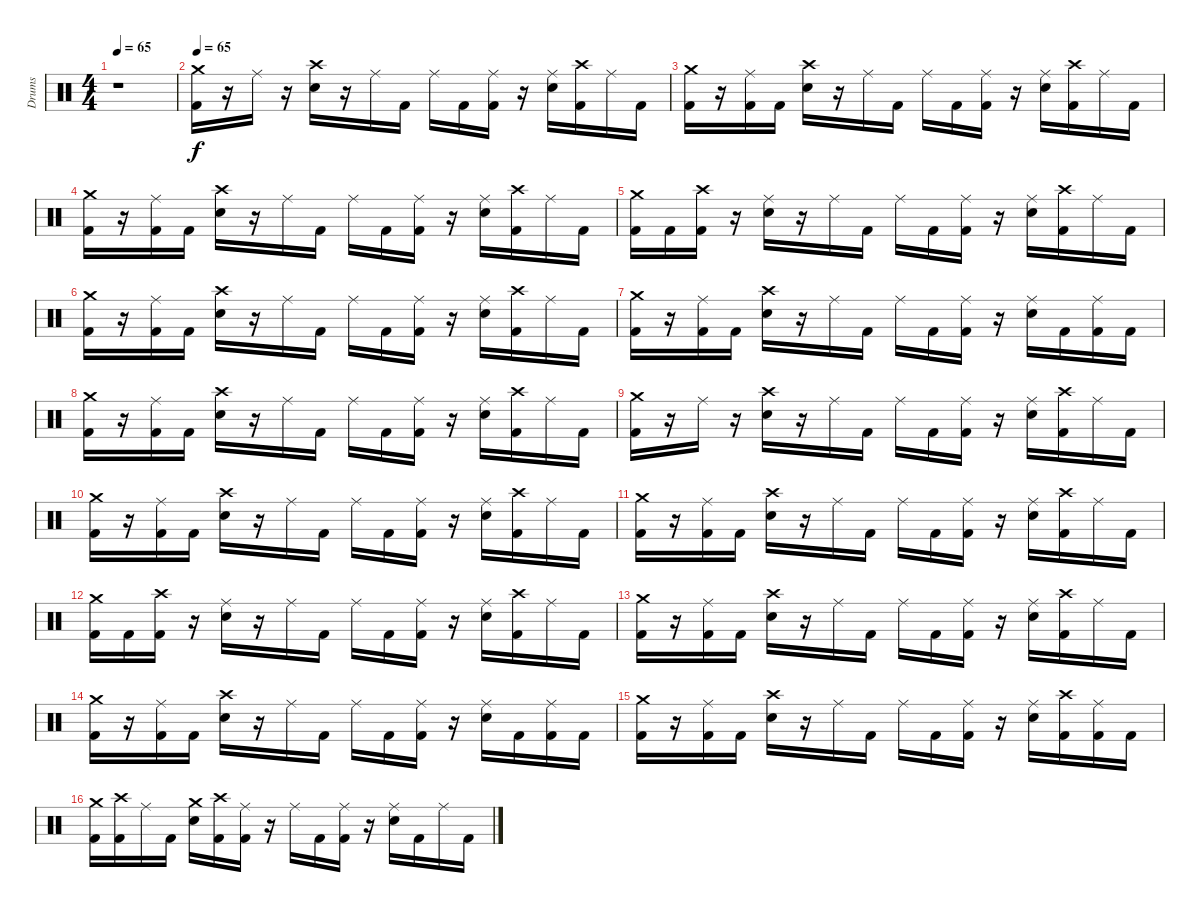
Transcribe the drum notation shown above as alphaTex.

\track ("Drums" "Drums") {instrument percussion}
\staff {score}
\articulation defaults
\ts (4 4)
\tempo 65
\clef neutral
\ks c
r.1{dy f} |
\section ("" "")
\tempo 65
("Crash medium (hit)" "Kick (hit) 2").16 r.16 "Ride (middle)".16 r.16 ("Crash high (hit)" "Electric Snare (hit)").16 r.16 "Ride (middle)".16 "Kick (hit) 2".16 "Ride (middle)".16 "Kick (hit) 2".16 ("Ride (middle)" "Kick (hit) 2").16 r.16 ("Ride (middle)" "Electric Snare (hit)").16 ("Crash high (hit)" "Kick (hit) 2").16 "Ride (middle)".16 "Kick (hit) 2".16 |
("Crash medium (hit)" "Kick (hit) 2").16 r.16 ("Ride (middle)" "Kick (hit) 2").16 "Kick (hit) 2".16 ("Crash high (hit)" "Electric Snare (hit)").16 r.16 "Ride (middle)".16 "Kick (hit) 2".16 "Ride (middle)".16 "Kick (hit) 2".16 ("Ride (middle)" "Kick (hit) 2").16 r.16 ("Ride (middle)" "Electric Snare (hit)").16 ("Crash high (hit)" "Kick (hit) 2").16 "Ride (middle)".16 "Kick (hit) 2".16 |
("Crash medium (hit)" "Kick (hit) 2").16 r.16 ("Ride (middle)" "Kick (hit) 2").16 "Kick (hit) 2".16 ("Crash high (hit)" "Electric Snare (hit)").16 r.16 "Ride (middle)".16 "Kick (hit) 2".16 "Ride (middle)".16 "Kick (hit) 2".16 ("Ride (middle)" "Kick (hit) 2").16 r.16 ("Ride (middle)" "Electric Snare (hit)").16 ("Crash high (hit)" "Kick (hit) 2").16 "Ride (middle)".16 "Kick (hit) 2".16 |
("Crash medium (hit)" "Kick (hit) 2").16 "Kick (hit) 2".16 ("Crash high (hit)" "Kick (hit) 2").16 r.16 ("Ride (middle)" "Electric Snare (hit)").16 r.16 "Ride (middle)".16 "Kick (hit) 2".16 "Ride (middle)".16 "Kick (hit) 2".16 ("Ride (middle)" "Kick (hit) 2").16 r.16 ("Ride (middle)" "Electric Snare (hit)").16 ("Crash high (hit)" "Kick (hit) 2").16 "Ride (middle)".16 "Kick (hit) 2".16 |
("Crash medium (hit)" "Kick (hit) 2").16 r.16 ("Ride (middle)" "Kick (hit) 2").16 "Kick (hit) 2".16 ("Crash high (hit)" "Electric Snare (hit)").16 r.16 "Ride (middle)".16 "Kick (hit) 2".16 "Ride (middle)".16 "Kick (hit) 2".16 ("Ride (middle)" "Kick (hit) 2").16 r.16 ("Ride (middle)" "Electric Snare (hit)").16 ("Crash high (hit)" "Kick (hit) 2").16 "Ride (middle)".16 "Kick (hit) 2".16 |
("Crash medium (hit)" "Kick (hit) 2").16 r.16 ("Ride (middle)" "Kick (hit) 2").16 "Kick (hit) 2".16 ("Crash high (hit)" "Electric Snare (hit)").16 r.16 "Ride (middle)".16 "Kick (hit) 2".16 "Ride (middle)".16 "Kick (hit) 2".16 ("Ride (middle)" "Kick (hit) 2").16 r.16 ("Ride (middle)" "Electric Snare (hit)").16 "Kick (hit) 2".16 ("Ride (middle)" "Kick (hit) 2").16 "Kick (hit) 2".16 |
("Crash medium (hit)" "Kick (hit) 2").16 r.16 ("Ride (middle)" "Kick (hit) 2").16 "Kick (hit) 2".16 ("Crash high (hit)" "Electric Snare (hit)").16 r.16 "Ride (middle)".16 "Kick (hit) 2".16 "Ride (middle)".16 "Kick (hit) 2".16 ("Ride (middle)" "Kick (hit) 2").16 r.16 ("Ride (middle)" "Electric Snare (hit)").16 ("Crash high (hit)" "Kick (hit) 2").16 "Ride (middle)".16 "Kick (hit) 2".16 |
("Crash medium (hit)" "Kick (hit) 2").16 r.16 "Ride (middle)".16 r.16 ("Crash high (hit)" "Electric Snare (hit)").16 r.16 "Ride (middle)".16 "Kick (hit) 2".16 "Ride (middle)".16 "Kick (hit) 2".16 ("Ride (middle)" "Kick (hit) 2").16 r.16 ("Ride (middle)" "Electric Snare (hit)").16 ("Crash high (hit)" "Kick (hit) 2").16 "Ride (middle)".16 "Kick (hit) 2".16 |
("Crash medium (hit)" "Kick (hit) 2").16 r.16 ("Ride (middle)" "Kick (hit) 2").16 "Kick (hit) 2".16 ("Crash high (hit)" "Electric Snare (hit)").16 r.16 "Ride (middle)".16 "Kick (hit) 2".16 "Ride (middle)".16 "Kick (hit) 2".16 ("Ride (middle)" "Kick (hit) 2").16 r.16 ("Ride (middle)" "Electric Snare (hit)").16 ("Crash high (hit)" "Kick (hit) 2").16 "Ride (middle)".16 "Kick (hit) 2".16 |
("Crash medium (hit)" "Kick (hit) 2").16 r.16 ("Ride (middle)" "Kick (hit) 2").16 "Kick (hit) 2".16 ("Crash high (hit)" "Electric Snare (hit)").16 r.16 "Ride (middle)".16 "Kick (hit) 2".16 "Ride (middle)".16 "Kick (hit) 2".16 ("Ride (middle)" "Kick (hit) 2").16 r.16 ("Ride (middle)" "Electric Snare (hit)").16 ("Crash high (hit)" "Kick (hit) 2").16 "Ride (middle)".16 "Kick (hit) 2".16 |
("Crash medium (hit)" "Kick (hit) 2").16 "Kick (hit) 2".16 ("Crash high (hit)" "Kick (hit) 2").16 r.16 ("Ride (middle)" "Electric Snare (hit)").16 r.16 "Ride (middle)".16 "Kick (hit) 2".16 "Ride (middle)".16 "Kick (hit) 2".16 ("Ride (middle)" "Kick (hit) 2").16 r.16 ("Ride (middle)" "Electric Snare (hit)").16 ("Crash high (hit)" "Kick (hit) 2").16 "Ride (middle)".16 "Kick (hit) 2".16 |
("Crash medium (hit)" "Kick (hit) 2").16 r.16 ("Ride (middle)" "Kick (hit) 2").16 "Kick (hit) 2".16 ("Crash high (hit)" "Electric Snare (hit)").16 r.16 "Ride (middle)".16 "Kick (hit) 2".16 "Ride (middle)".16 "Kick (hit) 2".16 ("Ride (middle)" "Kick (hit) 2").16 r.16 ("Ride (middle)" "Electric Snare (hit)").16 ("Crash high (hit)" "Kick (hit) 2").16 "Ride (middle)".16 "Kick (hit) 2".16 |
("Crash medium (hit)" "Kick (hit) 2").16 r.16 ("Ride (middle)" "Kick (hit) 2").16 "Kick (hit) 2".16 ("Crash high (hit)" "Electric Snare (hit)").16 r.16 "Ride (middle)".16 "Kick (hit) 2".16 "Ride (middle)".16 "Kick (hit) 2".16 ("Ride (middle)" "Kick (hit) 2").16 r.16 ("Ride (middle)" "Electric Snare (hit)").16 "Kick (hit) 2".16 ("Ride (middle)" "Kick (hit) 2").16 "Kick (hit) 2".16 |
("Crash medium (hit)" "Kick (hit) 2").16 r.16 ("Ride (middle)" "Kick (hit) 2").16 "Kick (hit) 2".16 ("Crash high (hit)" "Electric Snare (hit)").16 r.16 "Ride (middle)".16 "Kick (hit) 2".16 "Ride (middle)".16 "Kick (hit) 2".16 ("Ride (middle)" "Kick (hit) 2").16 r.16 ("Ride (middle)" "Electric Snare (hit)").16 ("Crash high (hit)" "Kick (hit) 2").16 ("Ride (middle)" "Kick (hit) 2").16 "Kick (hit) 2".16 |
\section ("" "")
("Crash medium (hit)" "Kick (hit) 2").16 ("Crash high (hit)" "Kick (hit) 2").16 "Ride (middle)".16 "Kick (hit) 2".16 ("Crash medium (hit)" "Electric Snare (hit)").16 ("Crash high (hit)" "Kick (hit) 2").16 ("Ride (middle)" "Kick (hit) 2").16 r.16 "Ride (middle)".16 "Kick (hit) 2".16 ("Ride (middle)" "Kick (hit) 2").16 r.16 ("Ride (middle)" "Electric Snare (hit)").16 "Kick (hit) 2".16 "Ride (middle)".16 "Kick (hit) 2".16
